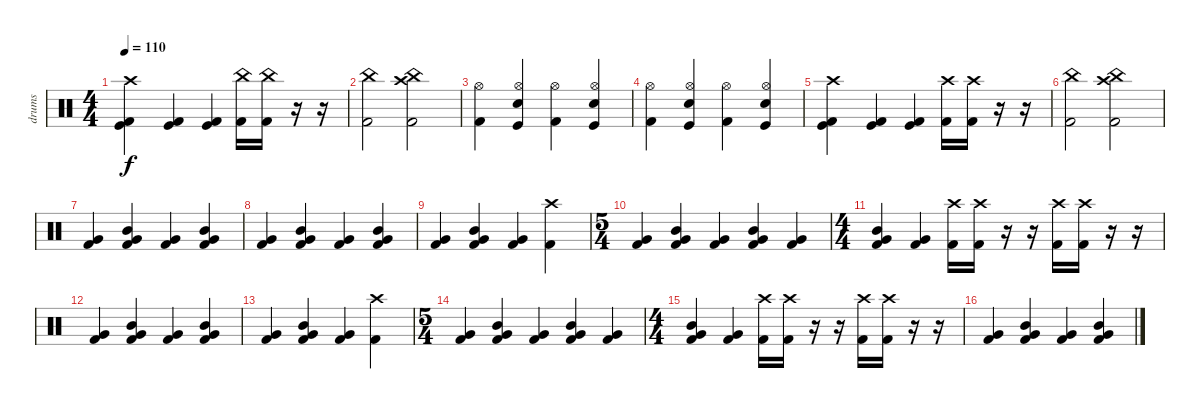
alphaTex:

\track ("drums" "drums") {instrument percussion}
\staff {score}
\articulation defaults
\ts (4 4)
\tempo 110
\clef neutral
\ks c
("Crash high (hit)" "Kick (hit) 2" "Kick (hit)").4{dy f} ("Kick (hit) 2" "Kick (hit)").4 ("Kick (hit) 2" "Kick (hit)").4 ("China (hit)" "Kick (hit) 2").16 ("China (hit)" "Kick (hit) 2").16 r.16 r.16 |
("China (hit)" "Kick (hit) 2").2 ("Crash high (hit)" "China (hit)" "Kick (hit) 2").2 |
("Hi-Hat (open)" "Kick (hit) 2").4 ("Hi-Hat (open)" "Snare (hit) 2" "Kick (hit)").4 ("Hi-Hat (open)" "Kick (hit) 2").4 ("Hi-Hat (open)" "Snare (hit) 2" "Kick (hit)").4 |
("Hi-Hat (open)" "Kick (hit) 2").4 ("Hi-Hat (open)" "Snare (hit) 2" "Kick (hit)").4 ("Hi-Hat (open)" "Kick (hit) 2").4 ("Hi-Hat (open)" "Snare (hit) 2" "Kick (hit)").4 |
("Crash high (hit)" "Kick (hit) 2" "Kick (hit)").4 ("Kick (hit) 2" "Kick (hit)").4 ("Kick (hit) 2" "Kick (hit)").4 ("Crash high (hit)" "Kick (hit) 2").16 ("Crash high (hit)" "Kick (hit) 2").16 r.16 r.16 |
("China (hit)" "Kick (hit) 2").2 ("Crash high (hit)" "China (hit)" "Kick (hit) 2").2 |
("Very Low Tom (hit)" "Kick (hit) 2").4 ("Mid Tom (hit)" "Very Low Tom (hit)" "Kick (hit) 2").4 ("Very Low Tom (hit)" "Kick (hit) 2").4 ("Mid Tom (hit)" "Very Low Tom (hit)" "Kick (hit) 2").4 |
("Very Low Tom (hit)" "Kick (hit) 2").4 ("Mid Tom (hit)" "Very Low Tom (hit)" "Kick (hit) 2").4 ("Very Low Tom (hit)" "Kick (hit) 2").4 ("Mid Tom (hit)" "Very Low Tom (hit)" "Kick (hit) 2").4 |
("Very Low Tom (hit)" "Kick (hit) 2").4 ("Mid Tom (hit)" "Very Low Tom (hit)" "Kick (hit) 2").4 ("Very Low Tom (hit)" "Kick (hit) 2").4 ("Crash high (hit)" "Kick (hit) 2").4 |
\ts (5 4)
("Very Low Tom (hit)" "Kick (hit) 2").4 ("Mid Tom (hit)" "Very Low Tom (hit)" "Kick (hit) 2").4 ("Very Low Tom (hit)" "Kick (hit) 2").4 ("Mid Tom (hit)" "Very Low Tom (hit)" "Kick (hit) 2").4 ("Very Low Tom (hit)" "Kick (hit) 2").4 |
\ts (4 4)
("Mid Tom (hit)" "Very Low Tom (hit)" "Kick (hit) 2").4 ("Very Low Tom (hit)" "Kick (hit) 2").4 ("Crash high (hit)" "Kick (hit) 2").16 ("Crash high (hit)" "Kick (hit) 2").16 r.16 r.16 ("Crash high (hit)" "Kick (hit) 2").16 ("Crash high (hit)" "Kick (hit) 2").16 r.16 r.16 |
("Very Low Tom (hit)" "Kick (hit) 2").4 ("Mid Tom (hit)" "Very Low Tom (hit)" "Kick (hit) 2").4 ("Very Low Tom (hit)" "Kick (hit) 2").4 ("Mid Tom (hit)" "Very Low Tom (hit)" "Kick (hit) 2").4 |
("Very Low Tom (hit)" "Kick (hit) 2").4 ("Mid Tom (hit)" "Very Low Tom (hit)" "Kick (hit) 2").4 ("Very Low Tom (hit)" "Kick (hit) 2").4 ("Crash high (hit)" "Kick (hit) 2").4 |
\ts (5 4)
("Very Low Tom (hit)" "Kick (hit) 2").4 ("Mid Tom (hit)" "Very Low Tom (hit)" "Kick (hit) 2").4 ("Very Low Tom (hit)" "Kick (hit) 2").4 ("Mid Tom (hit)" "Very Low Tom (hit)" "Kick (hit) 2").4 ("Very Low Tom (hit)" "Kick (hit) 2").4 |
\ts (4 4)
("Mid Tom (hit)" "Very Low Tom (hit)" "Kick (hit) 2").4 ("Very Low Tom (hit)" "Kick (hit) 2").4 ("Crash high (hit)" "Kick (hit) 2").16 ("Crash high (hit)" "Kick (hit) 2").16 r.16 r.16 ("Crash high (hit)" "Kick (hit) 2").16 ("Crash high (hit)" "Kick (hit) 2").16 r.16 r.16 |
("Very Low Tom (hit)" "Kick (hit) 2").4 ("Mid Tom (hit)" "Very Low Tom (hit)" "Kick (hit) 2").4 ("Very Low Tom (hit)" "Kick (hit) 2").4 ("Mid Tom (hit)" "Very Low Tom (hit)" "Kick (hit) 2").4
